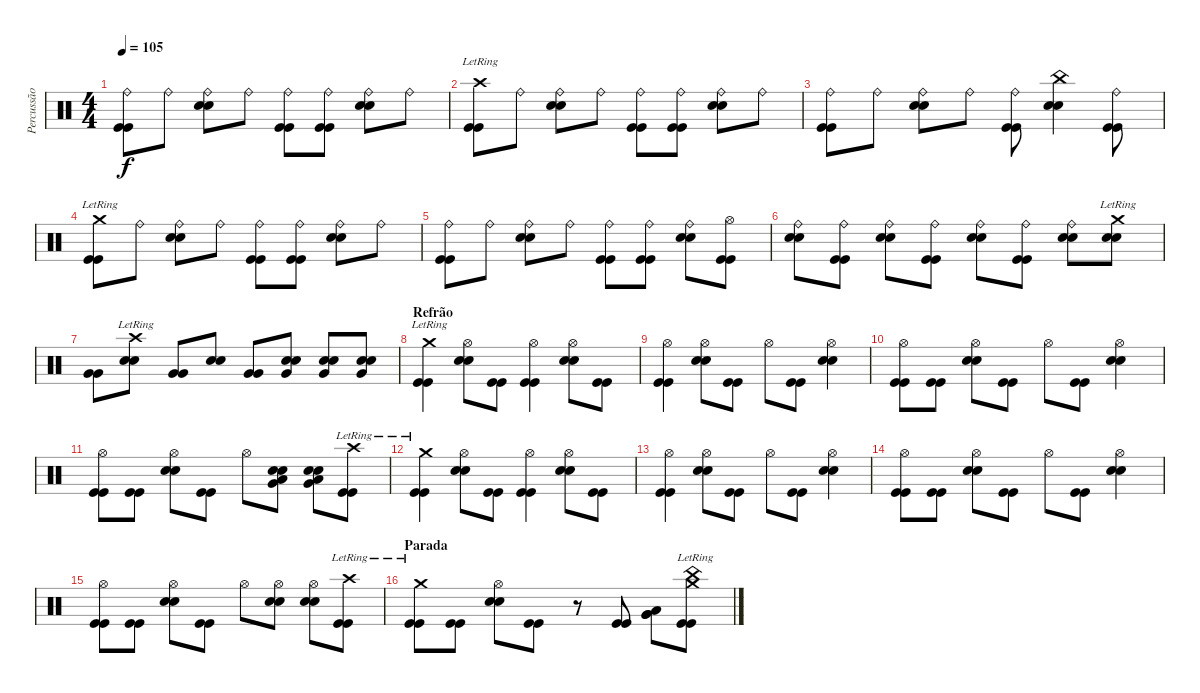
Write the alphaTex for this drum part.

\track ("Percussão" "Percussão") {instrument percussion}
\staff {score}
\articulation defaults
\ts (4 4)
\tempo 105
\clef neutral
\ks c
("Ride (bell)" "Kick (hit)" "Kick (hit)").8{dy f} "Ride (bell)".8 ("Ride (bell)" "Electric Snare (hit)" "Electric Snare (hit)").8 "Ride (bell)".8 ("Ride (bell)" "Kick (hit)" "Kick (hit)").8 ("Ride (bell)" "Kick (hit)" "Kick (hit)").8 ("Ride (bell)" "Electric Snare (hit)" "Electric Snare (hit)").8 "Ride (bell)".8 |
("Crash high (hit)"{lr} "Kick (hit)" "Kick (hit)").8 "Ride (bell)".8 ("Ride (bell)" "Electric Snare (hit)" "Electric Snare (hit)").8 "Ride (bell)".8 ("Ride (bell)" "Kick (hit)" "Kick (hit)").8 ("Ride (bell)" "Kick (hit)" "Kick (hit)").8 ("Ride (bell)" "Electric Snare (hit)" "Electric Snare (hit)").8 "Ride (bell)".8 |
("Ride (bell)" "Kick (hit)" "Kick (hit)").8 "Ride (bell)".8 ("Ride (bell)" "Electric Snare (hit)" "Electric Snare (hit)").8 "Ride (bell)".8 ("Ride (bell)" "Kick (hit)" "Kick (hit)").8 ("China (hit)" "Electric Snare (hit)" "Electric Snare (hit)").4 ("Ride (bell)" "Kick (hit)" "Kick (hit)").8 |
("Crash medium (hit)"{lr} "Kick (hit)" "Kick (hit)").8 "Ride (bell)".8 ("Ride (bell)" "Electric Snare (hit)" "Electric Snare (hit)").8 "Ride (bell)".8 ("Ride (bell)" "Kick (hit)" "Kick (hit)").8 ("Ride (bell)" "Kick (hit)" "Kick (hit)").8 ("Ride (bell)" "Electric Snare (hit)" "Electric Snare (hit)").8 "Ride (bell)".8 |
("Ride (bell)" "Kick (hit)" "Kick (hit)").8 "Ride (bell)".8 ("Ride (bell)" "Electric Snare (hit)" "Electric Snare (hit)").8 "Ride (bell)".8 ("Ride (bell)" "Kick (hit)" "Kick (hit)").8 ("Ride (bell)" "Kick (hit)" "Kick (hit)").8 ("Ride (bell)" "Electric Snare (hit)" "Electric Snare (hit)").8 ("Hi-Hat (open)" "Kick (hit)" "Kick (hit)").8 |
("Ride (bell)" "Electric Snare (hit)" "Electric Snare (hit)").8 ("Ride (bell)" "Kick (hit)" "Kick (hit)").8 ("Ride (bell)" "Electric Snare (hit)" "Electric Snare (hit)").8 ("Ride (bell)" "Kick (hit)" "Kick (hit)").8 ("Ride (bell)" "Electric Snare (hit)" "Electric Snare (hit)").8 ("Ride (bell)" "Kick (hit)" "Kick (hit)").8 ("Ride (bell)" "Electric Snare (hit)" "Electric Snare (hit)").8 ("Crash medium (hit)"{lr} "Electric Snare (hit)" "Electric Snare (hit)").8 |
("Very Low Tom (hit)" "Very Low Tom (hit)").8 ("Crash high (hit)"{lr} "Electric Snare (hit)" "Electric Snare (hit)").8 ("Very Low Tom (hit)" "Very Low Tom (hit)").8 ("Electric Snare (hit)" "Electric Snare (hit)").8 ("Very Low Tom (hit)" "Very Low Tom (hit)").8 ("Very Low Tom (hit)" "Electric Snare (hit)" "Electric Snare (hit)").8 ("Very Low Tom (hit)" "Electric Snare (hit)" "Electric Snare (hit)").8 ("Very Low Tom (hit)" "Electric Snare (hit)" "Electric Snare (hit)").8 |
\section ("" "Refrão")
("Crash medium (hit)"{lr} "Kick (hit)" "Kick (hit)").4 ("Hi-Hat (open)" "Electric Snare (hit)" "Electric Snare (hit)").8 ("Kick (hit)" "Kick (hit)").8 ("Hi-Hat (open)" "Kick (hit)" "Kick (hit)").4 ("Hi-Hat (open)" "Electric Snare (hit)" "Electric Snare (hit)").8 ("Kick (hit)" "Kick (hit)").8 |
("Hi-Hat (open)" "Kick (hit)" "Kick (hit)").4 ("Hi-Hat (open)" "Electric Snare (hit)" "Electric Snare (hit)").8 ("Kick (hit)" "Kick (hit)").8 "Hi-Hat (open)".8 ("Kick (hit)" "Kick (hit)").8 ("Hi-Hat (open)" "Electric Snare (hit)" "Electric Snare (hit)").4 |
("Hi-Hat (open)" "Kick (hit)" "Kick (hit)").8 ("Kick (hit)" "Kick (hit)").8 ("Hi-Hat (open)" "Electric Snare (hit)" "Electric Snare (hit)").8 ("Kick (hit)" "Kick (hit)").8 "Hi-Hat (open)".8 ("Kick (hit)" "Kick (hit)").8 ("Hi-Hat (open)" "Electric Snare (hit)" "Electric Snare (hit)").4 |
("Hi-Hat (open)" "Kick (hit)" "Kick (hit)").8 ("Kick (hit)" "Kick (hit)").8 ("Hi-Hat (open)" "Electric Snare (hit)" "Electric Snare (hit)").8 ("Kick (hit)" "Kick (hit)").8 "Hi-Hat (open)".8 ("Low Tom (hit)" "Very Low Tom (hit)" "Electric Snare (hit)" "Electric Snare (hit)").8 ("Low Tom (hit)" "Very Low Tom (hit)" "Electric Snare (hit)" "Electric Snare (hit)").8 ("Crash high (hit)"{lr} "Kick (hit)" "Kick (hit)").8 |
("Crash medium (hit)"{lr} "Kick (hit)" "Kick (hit)").4 ("Hi-Hat (open)" "Electric Snare (hit)" "Electric Snare (hit)").8 ("Kick (hit)" "Kick (hit)").8 ("Hi-Hat (open)" "Kick (hit)" "Kick (hit)").4 ("Hi-Hat (open)" "Electric Snare (hit)" "Electric Snare (hit)").8 ("Kick (hit)" "Kick (hit)").8 |
("Hi-Hat (open)" "Kick (hit)" "Kick (hit)").4 ("Hi-Hat (open)" "Electric Snare (hit)" "Electric Snare (hit)").8 ("Kick (hit)" "Kick (hit)").8 "Hi-Hat (open)".8 ("Kick (hit)" "Kick (hit)").8 ("Hi-Hat (open)" "Electric Snare (hit)" "Electric Snare (hit)").4 |
("Hi-Hat (open)" "Kick (hit)" "Kick (hit)").8 ("Kick (hit)" "Kick (hit)").8 ("Hi-Hat (open)" "Electric Snare (hit)" "Electric Snare (hit)").8 ("Kick (hit)" "Kick (hit)").8 "Hi-Hat (open)".8 ("Kick (hit)" "Kick (hit)").8 ("Hi-Hat (open)" "Electric Snare (hit)" "Electric Snare (hit)").4 |
("Hi-Hat (open)" "Kick (hit)" "Kick (hit)").8 ("Kick (hit)" "Kick (hit)").8 ("Hi-Hat (open)" "Electric Snare (hit)" "Electric Snare (hit)").8 ("Kick (hit)" "Kick (hit)").8 "Hi-Hat (open)".8 ("Hi-Hat (open)" "Electric Snare (hit)" "Electric Snare (hit)").8 ("Hi-Hat (open)" "Electric Snare (hit)" "Electric Snare (hit)").8 ("Crash high (hit)"{lr} "Kick (hit)" "Kick (hit)").8 |
\section ("" "Parada")
("Crash medium (hit)"{lr} "Kick (hit)" "Kick (hit)").8 ("Kick (hit)" "Kick (hit)").8 ("Hi-Hat (open)" "Electric Snare (hit)" "Electric Snare (hit)").8 ("Kick (hit)" "Kick (hit)").8 r.8 ("Kick (hit)" "Kick (hit)").8 ("Low Tom (hit)" "Very Low Tom (hit)" "Very Low Tom (hit)").8 ("Crash medium (hit)"{lr} "China (hit)"{lr} "Kick (hit)" "Kick (hit)").8
